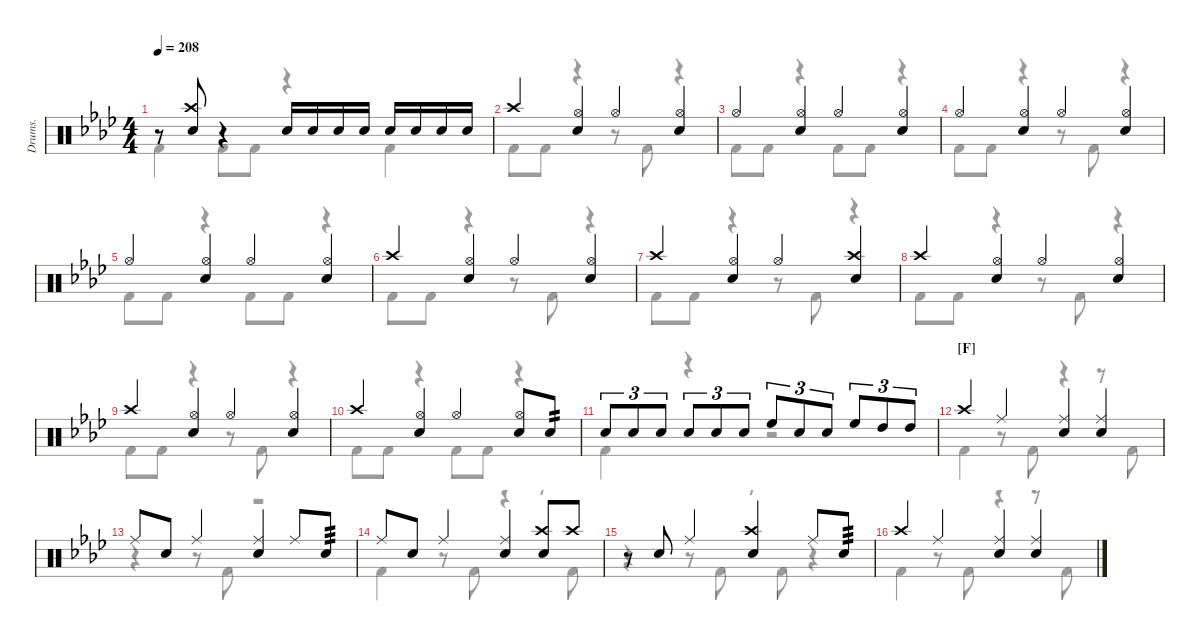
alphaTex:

\defaultSystemsLayout 4
\hideDynamics
\otherSystemsTrackNameOrientation horizontal
\track ("Drumkit" "Drums.") {defaultSystemsLayout 4 instrument percussion}
\staff {score}
\articulation defaults
\voice
\ts (4 4)
\tempo 208
\clef neutral
\ks fminor
r.8{dy mf} ("Crash high (hit)"{acc forcenatural} "Snare (hit) 2"{acc forcenatural}).8 r.4 "Snare (hit) 2"{acc forcenatural}.16 "Snare (hit) 2"{acc forcenatural}.16 "Snare (hit) 2"{acc forcenatural}.16 "Snare (hit) 2"{acc forcenatural}.16 "Snare (hit) 2"{acc forcenatural}.16 "Snare (hit) 2"{acc forcenatural}.16 "Snare (hit) 2"{acc forcenatural}.16 "Snare (hit) 2"{acc forcenatural}.16 |
"Crash high (hit)"{acc forcenatural}.4 ("Hi-Hat (open)"{acc forcenatural} "Snare (hit) 2"{acc forcenatural}).4 "Hi-Hat (open)"{acc forcenatural}.4 ("Hi-Hat (open)"{acc forcenatural} "Snare (hit) 2"{acc forcenatural}).4 |
"Hi-Hat (open)"{acc forcenatural}.4 ("Hi-Hat (open)"{acc forcenatural} "Snare (hit) 2"{acc forcenatural}).4 "Hi-Hat (open)"{acc forcenatural}.4 ("Hi-Hat (open)"{acc forcenatural} "Snare (hit) 2"{acc forcenatural}).4 |
"Hi-Hat (open)"{acc forcenatural}.4 ("Hi-Hat (open)"{acc forcenatural} "Snare (hit) 2"{acc forcenatural}).4 "Hi-Hat (open)"{acc forcenatural}.4 ("Hi-Hat (open)"{acc forcenatural} "Snare (hit) 2"{acc forcenatural}).4 |
"Hi-Hat (open)"{acc forcenatural}.4 ("Hi-Hat (open)"{acc forcenatural} "Snare (hit) 2"{acc forcenatural}).4 "Hi-Hat (open)"{acc forcenatural}.4 ("Hi-Hat (open)"{acc forcenatural} "Snare (hit) 2"{acc forcenatural}).4 |
"Crash high (hit)"{acc forcenatural}.4 ("Hi-Hat (open)"{acc forcenatural} "Snare (hit) 2"{acc forcenatural}).4 "Hi-Hat (open)"{acc forcenatural}.4 ("Hi-Hat (open)"{acc forcenatural} "Snare (hit) 2"{acc forcenatural}).4 |
"Crash high (hit)"{acc forcenatural}.4 ("Hi-Hat (open)"{acc forcenatural} "Snare (hit) 2"{acc forcenatural}).4 "Hi-Hat (open)"{acc forcenatural}.4 ("Snare (hit) 2"{acc forcenatural} "Crash high (hit)"{acc forcenatural}).4 |
"Crash high (hit)"{acc forcenatural}.4 ("Hi-Hat (open)"{acc forcenatural} "Snare (hit) 2"{acc forcenatural}).4 "Hi-Hat (open)"{acc forcenatural}.4 ("Hi-Hat (open)"{acc forcenatural} "Snare (hit) 2"{acc forcenatural}).4 |
"Crash high (hit)"{acc forcenatural}.4 ("Hi-Hat (open)"{acc forcenatural} "Snare (hit) 2"{acc forcenatural}).4 "Hi-Hat (open)"{acc forcenatural}.4 ("Hi-Hat (open)"{acc forcenatural} "Snare (hit) 2"{acc forcenatural}).4 |
"Crash high (hit)"{acc forcenatural}.4 ("Hi-Hat (open)"{acc forcenatural} "Snare (hit) 2"{acc forcenatural}).4 "Hi-Hat (open)"{acc forcenatural}.4 ("Hi-Hat (open)"{acc forcenatural} "Snare (hit) 2"{acc forcenatural}).8 "Snare (hit) 2"{acc forcenatural}.8{tp 2} |
"Snare (hit) 2"{acc forcenatural}.8{tu (3 2)} "Snare (hit) 2"{acc forcenatural}.8{tu (3 2)} "Snare (hit) 2"{acc forcenatural}.8{tu (3 2)} "Snare (hit) 2"{acc forcenatural}.8{tu (3 2)} "Snare (hit) 2"{acc forcenatural}.8{tu (3 2)} "Snare (hit) 2"{acc forcenatural}.8{tu (3 2)} "High Floor Tom (hit)"{acc forcenatural}.8{tu (3 2)} "Snare (hit) 2"{acc forcenatural}.8{tu (3 2)} "Snare (hit) 2"{acc forcenatural}.8{tu (3 2)} "High Floor Tom (hit)"{acc forcenatural}.8{tu (3 2)} "High Tom (hit)"{acc forcenatural}.8{tu (3 2)} "High Tom (hit)"{acc forcenatural}.8{tu (3 2)} |
\section ("F" "")
"Crash high (hit)"{acc forcenatural}.4 "Ride (middle)"{acc forcenatural}.4 ("Ride (middle)"{acc forcenatural} "Snare (hit) 2"{acc forcenatural}).4 ("Ride (middle)"{acc forcenatural} "Snare (hit) 2"{acc forcenatural}).4 |
"Ride (middle)"{acc forcenatural}.8 "Snare (hit) 2"{acc forcenatural}.8 "Ride (middle)"{acc forcenatural}.4 ("Snare (hit) 2"{acc forcenatural} "Ride (middle)"{acc forcenatural}).4 "Ride (middle)"{acc forcenatural}.8 "Snare (hit) 2"{acc forcenatural}.8{tp 3} |
"Ride (middle)"{acc forcenatural}.8 "Snare (hit) 2"{acc forcenatural}.8 "Ride (middle)"{acc forcenatural}.4 ("Snare (hit) 2"{acc forcenatural} "Ride (middle)"{acc forcenatural}).4 ("Snare (hit) 2"{acc forcenatural} "Crash high (hit)"{acc forcenatural}).8 "Crash high (hit)"{acc forcenatural}.8 |
r.8 "Snare (hit) 2"{acc forcenatural}.8 "Ride (middle)"{acc forcenatural}.4 ("Crash high (hit)"{acc forcenatural} "Snare (hit) 2"{acc forcenatural}).4 "Ride (middle)"{acc forcenatural}.8 "Snare (hit) 2"{acc forcenatural}.8{tp 3} |
"Crash high (hit)"{acc forcenatural}.4 "Ride (middle)"{acc forcenatural}.4 ("Ride (middle)"{acc forcenatural} "Snare (hit) 2"{acc forcenatural}).4 ("Ride (middle)"{acc forcenatural} "Snare (hit) 2"{acc forcenatural}).4
\voice
\clef neutral
\ottava regular
\simile none
\ks fminor "Kick (hit) 2"{acc forcenatural}.4{dy mf} "Kick (hit) 2"{acc forcenatural}.8 "Kick (hit) 2"{acc forcenatural}.8
r.4 "Kick (hit) 2"{acc forcenatural}.4 |
"Kick (hit) 2"{acc forcenatural}.8 "Kick (hit) 2"{acc forcenatural}.8 r.4 r.8 "Kick (hit) 2"{acc forcenatural}.8 r.4 |
"Kick (hit) 2"{acc forcenatural}.8 "Kick (hit) 2"{acc forcenatural}.8 r.4 "Kick (hit) 2"{acc forcenatural}.8 "Kick (hit) 2"{acc forcenatural}.8 r.4 |
"Kick (hit) 2"{acc forcenatural}.8 "Kick (hit) 2"{acc forcenatural}.8 r.4 r.8 "Kick (hit) 2"{acc forcenatural}.8 r.4 |
"Kick (hit) 2"{acc forcenatural}.8 "Kick (hit) 2"{acc forcenatural}.8 r.4 "Kick (hit) 2"{acc forcenatural}.8 "Kick (hit) 2"{acc forcenatural}.8 r.4 |
"Kick (hit) 2"{acc forcenatural}.8 "Kick (hit) 2"{acc forcenatural}.8 r.4 r.8 "Kick (hit) 2"{acc forcenatural}.8 r.4 |
"Kick (hit) 2"{acc forcenatural}.8 "Kick (hit) 2"{acc forcenatural}.8 r.4 r.8 "Kick (hit) 2"{acc forcenatural}.8 r.4 |
"Kick (hit) 2"{acc forcenatural}.8 "Kick (hit) 2"{acc forcenatural}.8 r.4 r.8 "Kick (hit) 2"{acc forcenatural}.8 r.4 |
"Kick (hit) 2"{acc forcenatural}.8 "Kick (hit) 2"{acc forcenatural}.8 r.4 r.8 "Kick (hit) 2"{acc forcenatural}.8 r.4 |
"Kick (hit) 2"{acc forcenatural}.8 "Kick (hit) 2"{acc forcenatural}.8 r.4 "Kick (hit) 2"{acc forcenatural}.8 "Kick (hit) 2"{acc forcenatural}.8 r.4 |
"Kick (hit) 2"{acc forcenatural}.4 r.4 r.2 |
"Kick (hit) 2"{acc forcenatural}.4 r.8 "Kick (hit) 2"{acc forcenatural}.8 r.4 r.8 "Kick (hit) 2"{acc forcenatural}.8 |
r.4 r.8 "Kick (hit) 2"{acc forcenatural}.8 r.2 |
"Kick (hit) 2"{acc forcenatural}.4 r.8 "Kick (hit) 2"{acc forcenatural}.8 r.4 r.8 "Kick (hit) 2"{acc forcenatural}.8 |
r.4 r.8 "Kick (hit) 2"{acc forcenatural}.8 r.8 "Kick (hit) 2"{acc forcenatural}.8 r.4 |
"Kick (hit) 2"{acc forcenatural}.4 r.8 "Kick (hit) 2"{acc forcenatural}.8 r.4 r.8 "Kick (hit) 2"{acc forcenatural}.8
